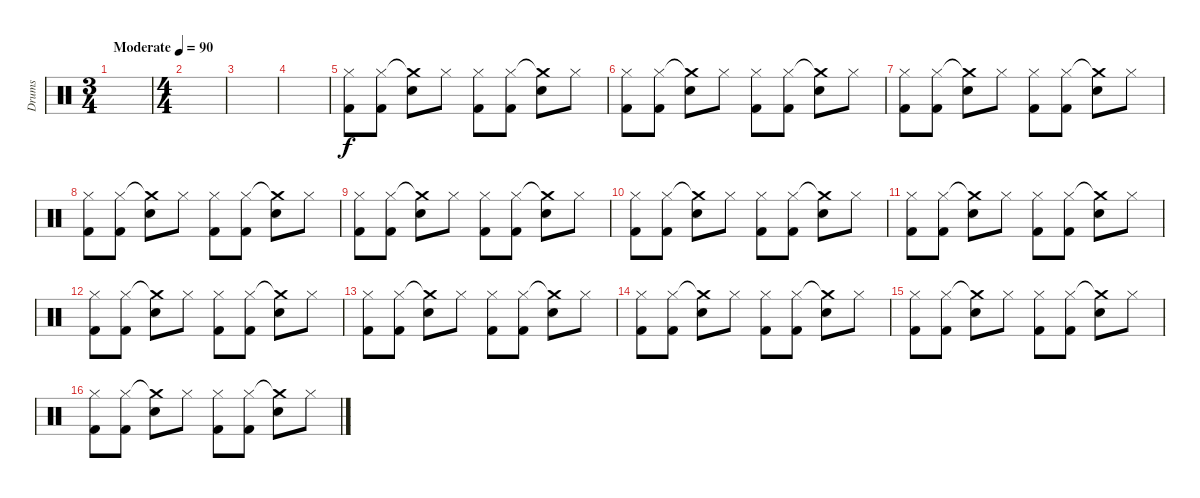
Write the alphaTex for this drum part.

\track ("Drums" "Drums") {instrument percussion}
\staff {score}
\articulation defaults
\ts (3 4)
\tempo (90 "Moderate")
\clef neutral
\ks c
|
\ts (4 4)
|
|
|
("Kick (hit) 2" "Hi-Hat (closed)").8 ("Kick (hit) 2" "Hi-Hat (closed)").8 ("Electric Snare (hit)" "Crash medium (hit)"{t}).8 "Hi-Hat (closed)".8 ("Kick (hit) 2" "Hi-Hat (closed)").8 ("Kick (hit) 2" "Hi-Hat (closed)").8 ("Electric Snare (hit)" "Crash medium (hit)"{t}).8 "Hi-Hat (closed)".8 |
("Kick (hit) 2" "Hi-Hat (closed)").8 ("Kick (hit) 2" "Hi-Hat (closed)").8 ("Electric Snare (hit)" "Crash medium (hit)"{t}).8 "Hi-Hat (closed)".8 ("Kick (hit) 2" "Hi-Hat (closed)").8 ("Kick (hit) 2" "Hi-Hat (closed)").8 ("Electric Snare (hit)" "Crash medium (hit)"{t}).8 "Hi-Hat (closed)".8 |
("Kick (hit) 2" "Hi-Hat (closed)").8 ("Kick (hit) 2" "Hi-Hat (closed)").8 ("Electric Snare (hit)" "Crash medium (hit)"{t}).8 "Hi-Hat (closed)".8 ("Kick (hit) 2" "Hi-Hat (closed)").8 ("Kick (hit) 2" "Hi-Hat (closed)").8 ("Electric Snare (hit)" "Crash medium (hit)"{t}).8 "Hi-Hat (closed)".8 |
("Kick (hit) 2" "Hi-Hat (closed)").8 ("Kick (hit) 2" "Hi-Hat (closed)").8 ("Electric Snare (hit)" "Crash medium (hit)"{t}).8 "Hi-Hat (closed)".8 ("Kick (hit) 2" "Hi-Hat (closed)").8 ("Kick (hit) 2" "Hi-Hat (closed)").8 ("Electric Snare (hit)" "Crash medium (hit)"{t}).8 "Hi-Hat (closed)".8 |
("Kick (hit) 2" "Hi-Hat (closed)").8 ("Kick (hit) 2" "Hi-Hat (closed)").8 ("Electric Snare (hit)" "Crash medium (hit)"{t}).8 "Hi-Hat (closed)".8 ("Kick (hit) 2" "Hi-Hat (closed)").8 ("Kick (hit) 2" "Hi-Hat (closed)").8 ("Electric Snare (hit)" "Crash medium (hit)"{t}).8 "Hi-Hat (closed)".8 |
("Kick (hit) 2" "Hi-Hat (closed)").8 ("Kick (hit) 2" "Hi-Hat (closed)").8 ("Electric Snare (hit)" "Crash medium (hit)"{t}).8 "Hi-Hat (closed)".8 ("Kick (hit) 2" "Hi-Hat (closed)").8 ("Kick (hit) 2" "Hi-Hat (closed)").8 ("Electric Snare (hit)" "Crash medium (hit)"{t}).8 "Hi-Hat (closed)".8 |
("Kick (hit) 2" "Hi-Hat (closed)").8 ("Kick (hit) 2" "Hi-Hat (closed)").8 ("Electric Snare (hit)" "Crash medium (hit)"{t}).8 "Hi-Hat (closed)".8 ("Kick (hit) 2" "Hi-Hat (closed)").8 ("Kick (hit) 2" "Hi-Hat (closed)").8 ("Electric Snare (hit)" "Crash medium (hit)"{t}).8 "Hi-Hat (closed)".8 |
("Kick (hit) 2" "Hi-Hat (closed)").8 ("Kick (hit) 2" "Hi-Hat (closed)").8 ("Electric Snare (hit)" "Crash medium (hit)"{t}).8 "Hi-Hat (closed)".8 ("Kick (hit) 2" "Hi-Hat (closed)").8 ("Kick (hit) 2" "Hi-Hat (closed)").8 ("Electric Snare (hit)" "Crash medium (hit)"{t}).8 "Hi-Hat (closed)".8 |
("Kick (hit) 2" "Hi-Hat (closed)").8 ("Kick (hit) 2" "Hi-Hat (closed)").8 ("Electric Snare (hit)" "Crash medium (hit)"{t}).8 "Hi-Hat (closed)".8 ("Kick (hit) 2" "Hi-Hat (closed)").8 ("Kick (hit) 2" "Hi-Hat (closed)").8 ("Electric Snare (hit)" "Crash medium (hit)"{t}).8 "Hi-Hat (closed)".8 |
("Kick (hit) 2" "Hi-Hat (closed)").8 ("Kick (hit) 2" "Hi-Hat (closed)").8 ("Electric Snare (hit)" "Crash medium (hit)"{t}).8 "Hi-Hat (closed)".8 ("Kick (hit) 2" "Hi-Hat (closed)").8 ("Kick (hit) 2" "Hi-Hat (closed)").8 ("Electric Snare (hit)" "Crash medium (hit)"{t}).8 "Hi-Hat (closed)".8 |
("Kick (hit) 2" "Hi-Hat (closed)").8 ("Kick (hit) 2" "Hi-Hat (closed)").8 ("Electric Snare (hit)" "Crash medium (hit)"{t}).8 "Hi-Hat (closed)".8 ("Kick (hit) 2" "Hi-Hat (closed)").8 ("Kick (hit) 2" "Hi-Hat (closed)").8 ("Electric Snare (hit)" "Crash medium (hit)"{t}).8 "Hi-Hat (closed)".8 |
("Kick (hit) 2" "Hi-Hat (closed)").8 ("Kick (hit) 2" "Hi-Hat (closed)").8 ("Electric Snare (hit)" "Crash medium (hit)"{t}).8 "Hi-Hat (closed)".8 ("Kick (hit) 2" "Hi-Hat (closed)").8 ("Kick (hit) 2" "Hi-Hat (closed)").8 ("Electric Snare (hit)" "Crash medium (hit)"{t}).8 "Hi-Hat (closed)".8
